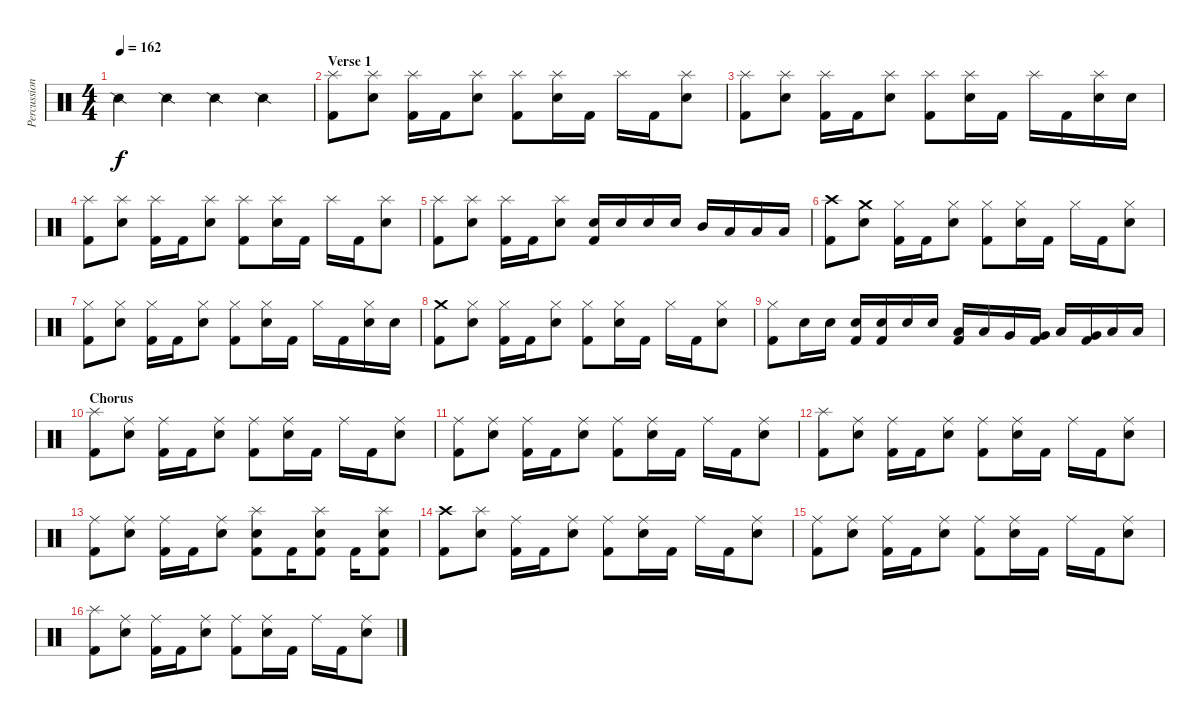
\track ("Percussion" "Percussion") {instrument percussion}
\staff {score}
\articulation defaults
\ts (4 4)
\tempo 162
\clef neutral
\ks c "Snare (side stick) 2".4{dy f} "Snare (side stick) 2".4 "Snare (side stick) 2".4 "Snare (side stick) 2".4
|
\section ("" "Verse 1")
("Splash (hit)" "Kick (hit) 2").8 ("Splash (hit)" "Electric Snare (hit)").8 ("Splash (hit)" "Kick (hit) 2").16 "Kick (hit) 2".16 ("Splash (hit)" "Electric Snare (hit)").8 ("Splash (hit)" "Kick (hit) 2").8 ("Splash (hit)" "Electric Snare (hit)").16 "Kick (hit) 2".16 "Splash (hit)".16 "Kick (hit) 2".16 ("Splash (hit)" "Electric Snare (hit)").8 |
("Splash (hit)" "Kick (hit) 2").8 ("Splash (hit)" "Electric Snare (hit)").8 ("Splash (hit)" "Kick (hit) 2").16 "Kick (hit) 2".16 ("Splash (hit)" "Electric Snare (hit)").8 ("Splash (hit)" "Kick (hit) 2").8 ("Splash (hit)" "Electric Snare (hit)").16 "Kick (hit) 2".16 "Splash (hit)".16 "Kick (hit) 2".16 ("Splash (hit)" "Electric Snare (hit)").16 "Electric Snare (hit)".16 |
("Splash (hit)" "Kick (hit) 2").8 ("Splash (hit)" "Electric Snare (hit)").8 ("Splash (hit)" "Kick (hit) 2").16 "Kick (hit) 2".16 ("Splash (hit)" "Electric Snare (hit)").8 ("Splash (hit)" "Kick (hit) 2").8 ("Splash (hit)" "Electric Snare (hit)").16 "Kick (hit) 2".16 "Splash (hit)".16 "Kick (hit) 2".16 ("Splash (hit)" "Electric Snare (hit)").8 |
("Splash (hit)" "Kick (hit) 2").8 ("Splash (hit)" "Electric Snare (hit)").8 ("Splash (hit)" "Kick (hit) 2").16 "Kick (hit) 2".16 ("Splash (hit)" "Electric Snare (hit)").8 ("Electric Snare (hit)" "Kick (hit) 2").16 "Electric Snare (hit)".16 "Electric Snare (hit)".16 "Electric Snare (hit)".16 "Mid Tom (hit)".16 "Low Tom (hit)".16 "Low Tom (hit)".16 "Low Tom (hit)".16 |
("Crash high (hit)" "Kick (hit) 2").8 ("Crash medium (hit)" "Electric Snare (hit)").8 ("Hi-Hat (closed)" "Kick (hit) 2").16 "Kick (hit) 2".16 ("Hi-Hat (closed)" "Electric Snare (hit)").8 ("Hi-Hat (closed)" "Kick (hit) 2").8 ("Hi-Hat (closed)" "Electric Snare (hit)").16 "Kick (hit) 2".16 "Hi-Hat (closed)".16 "Kick (hit) 2".16 ("Hi-Hat (closed)" "Electric Snare (hit)").8 |
("Hi-Hat (closed)" "Kick (hit) 2").8 ("Hi-Hat (closed)" "Electric Snare (hit)").8 ("Hi-Hat (closed)" "Kick (hit) 2").16 "Kick (hit) 2".16 ("Hi-Hat (closed)" "Electric Snare (hit)").8 ("Hi-Hat (closed)" "Kick (hit) 2").8 ("Hi-Hat (closed)" "Electric Snare (hit)").16 "Kick (hit) 2".16 "Hi-Hat (closed)".16 "Kick (hit) 2".16 ("Hi-Hat (closed)" "Electric Snare (hit)").16 "Electric Snare (hit)".16 |
("Crash medium (hit)" "Kick (hit) 2").8 ("Hi-Hat (closed)" "Electric Snare (hit)").8 ("Hi-Hat (closed)" "Kick (hit) 2").16 "Kick (hit) 2".16 ("Hi-Hat (closed)" "Electric Snare (hit)").8 ("Hi-Hat (closed)" "Kick (hit) 2").8 ("Hi-Hat (closed)" "Electric Snare (hit)").16 "Kick (hit) 2".16 "Hi-Hat (closed)".16 "Kick (hit) 2".16 ("Hi-Hat (closed)" "Electric Snare (hit)").8 |
("Hi-Hat (closed)" "Kick (hit) 2").8 "Electric Snare (hit)".16 "Electric Snare (hit)".16 ("Electric Snare (hit)" "Kick (hit) 2").16 ("Electric Snare (hit)" "Kick (hit) 2").16 "Electric Snare (hit)".16 "Electric Snare (hit)".16 ("Low Tom (hit)" "Kick (hit) 2").16 "Low Tom (hit)".16 "Very Low Tom (hit)".16 ("Very Low Tom (hit)" "Kick (hit) 2").16 "Low Tom (hit)".16 ("Very Low Tom (hit)" "Kick (hit) 2").16 "Low Floor Tom (hit)".16 "Low Floor Tom (hit)".16 |
\section ("" "Chorus")
("Splash (hit)" "Kick (hit) 2").8 ("Ride (middle)" "Electric Snare (hit)").8 ("Ride (middle)" "Kick (hit) 2").16 "Kick (hit) 2".16 ("Ride (middle)" "Electric Snare (hit)").8 ("Ride (middle)" "Kick (hit) 2").8 ("Ride (middle)" "Electric Snare (hit)").16 "Kick (hit) 2".16 "Ride (middle)".16 "Kick (hit) 2".16 ("Ride (middle)" "Electric Snare (hit)").8 |
("Ride (middle)" "Kick (hit) 2").8 ("Ride (middle)" "Electric Snare (hit)").8 ("Ride (middle)" "Kick (hit) 2").16 "Kick (hit) 2".16 ("Ride (middle)" "Electric Snare (hit)").8 ("Ride (middle)" "Kick (hit) 2").8 ("Ride (middle)" "Electric Snare (hit)").16 "Kick (hit) 2".16 "Ride (middle)".16 "Kick (hit) 2".16 ("Ride (middle)" "Electric Snare (hit)").8 |
("Splash (hit)" "Kick (hit) 2").8 ("Ride (middle)" "Electric Snare (hit)").8 ("Ride (middle)" "Kick (hit) 2").16 "Kick (hit) 2".16 ("Ride (middle)" "Electric Snare (hit)").8 ("Ride (middle)" "Kick (hit) 2").8 ("Ride (middle)" "Electric Snare (hit)").16 "Kick (hit) 2".16 "Ride (middle)".16 "Kick (hit) 2".16 ("Ride (middle)" "Electric Snare (hit)").8 |
("Ride (middle)" "Kick (hit) 2").8 ("Ride (middle)" "Electric Snare (hit)").8 ("Ride (middle)" "Kick (hit) 2").16 "Kick (hit) 2".16 ("Ride (middle)" "Electric Snare (hit)").8 ("Splash (hit)" "Electric Snare (hit)" "Kick (hit) 2").8 "Kick (hit) 2".16 ("Splash (hit)" "Electric Snare (hit)" "Kick (hit) 2").8 "Kick (hit) 2".16 ("Splash (hit)" "Electric Snare (hit)" "Kick (hit) 2").8 |
("Crash high (hit)" "Kick (hit) 2").8 ("Splash (hit)" "Electric Snare (hit)").8 ("Ride (middle)" "Kick (hit) 2").16 "Kick (hit) 2".16 ("Ride (middle)" "Electric Snare (hit)").8 ("Ride (middle)" "Kick (hit) 2").8 ("Ride (middle)" "Electric Snare (hit)").16 "Kick (hit) 2".16 "Ride (middle)".16 "Kick (hit) 2".16 ("Ride (middle)" "Electric Snare (hit)").8 |
("Ride (middle)" "Kick (hit) 2").8 ("Ride (middle)" "Electric Snare (hit)").8 ("Ride (middle)" "Kick (hit) 2").16 "Kick (hit) 2".16 ("Ride (middle)" "Electric Snare (hit)").8 ("Ride (middle)" "Kick (hit) 2").8 ("Ride (middle)" "Electric Snare (hit)").16 "Kick (hit) 2".16 "Ride (middle)".16 "Kick (hit) 2".16 ("Ride (middle)" "Electric Snare (hit)").8 |
("Splash (hit)" "Kick (hit) 2").8 ("Ride (middle)" "Electric Snare (hit)").8 ("Ride (middle)" "Kick (hit) 2").16 "Kick (hit) 2".16 ("Ride (middle)" "Electric Snare (hit)").8 ("Ride (middle)" "Kick (hit) 2").8 ("Ride (middle)" "Electric Snare (hit)").16 "Kick (hit) 2".16 "Ride (middle)".16 "Kick (hit) 2".16 ("Ride (middle)" "Electric Snare (hit)").8
